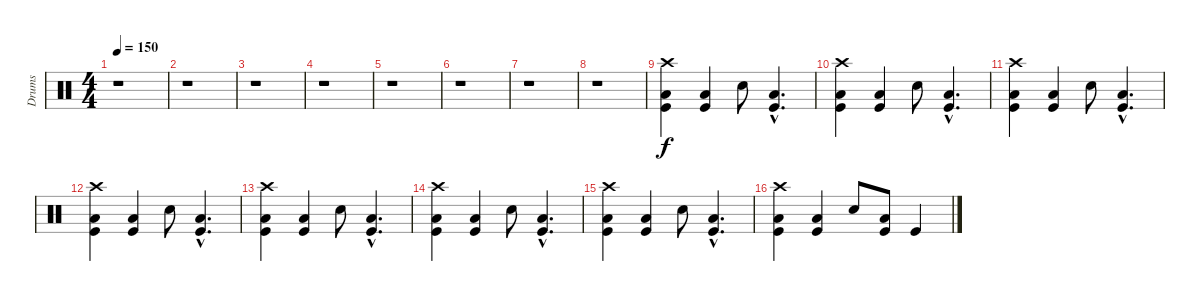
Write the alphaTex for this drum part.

\track ("Drums" "Drums") {instrument percussion}
\staff {score}
\articulation defaults
\ts (4 4)
\tempo 150
\clef neutral
\ks c
r.1{dy f} |
r.1 |
r.1 |
r.1 |
r.1 |
r.1 |
r.1 |
r.1 |
("Crash high (hit)" "Low Floor Tom (hit)" "Kick (hit)").4 ("Low Floor Tom (hit)" "Kick (hit)").4 "Snare (hit) 2".8 ("Low Floor Tom (hit)"{hac} "Kick (hit)"{hac}).4{d} |
("Crash high (hit)" "Low Floor Tom (hit)" "Kick (hit)").4 ("Low Floor Tom (hit)" "Kick (hit)").4 "Snare (hit) 2".8 ("Low Floor Tom (hit)"{hac} "Kick (hit)"{hac}).4{d} |
("Crash high (hit)" "Low Floor Tom (hit)" "Kick (hit)").4 ("Low Floor Tom (hit)" "Kick (hit)").4 "Snare (hit) 2".8 ("Low Floor Tom (hit)"{hac} "Kick (hit)"{hac}).4{d} |
("Crash high (hit)" "Low Floor Tom (hit)" "Kick (hit)").4 ("Low Floor Tom (hit)" "Kick (hit)").4 "Snare (hit) 2".8 ("Low Floor Tom (hit)"{hac} "Kick (hit)"{hac}).4{d} |
("Crash high (hit)" "Low Floor Tom (hit)" "Kick (hit)").4 ("Low Floor Tom (hit)" "Kick (hit)").4 "Snare (hit) 2".8 ("Low Floor Tom (hit)"{hac} "Kick (hit)"{hac}).4{d} |
("Crash high (hit)" "Low Floor Tom (hit)" "Kick (hit)").4 ("Low Floor Tom (hit)" "Kick (hit)").4 "Snare (hit) 2".8 ("Low Floor Tom (hit)"{hac} "Kick (hit)"{hac}).4{d} |
("Crash high (hit)" "Low Floor Tom (hit)" "Kick (hit)").4 ("Low Floor Tom (hit)" "Kick (hit)").4 "Snare (hit) 2".8 ("Low Floor Tom (hit)"{hac} "Kick (hit)"{hac}).4{d} |
("Crash high (hit)" "Low Floor Tom (hit)" "Kick (hit)").4 ("Low Floor Tom (hit)" "Kick (hit)").4 "Snare (hit) 2".8 ("Low Floor Tom (hit)" "Kick (hit)").8 "Kick (hit)".4
